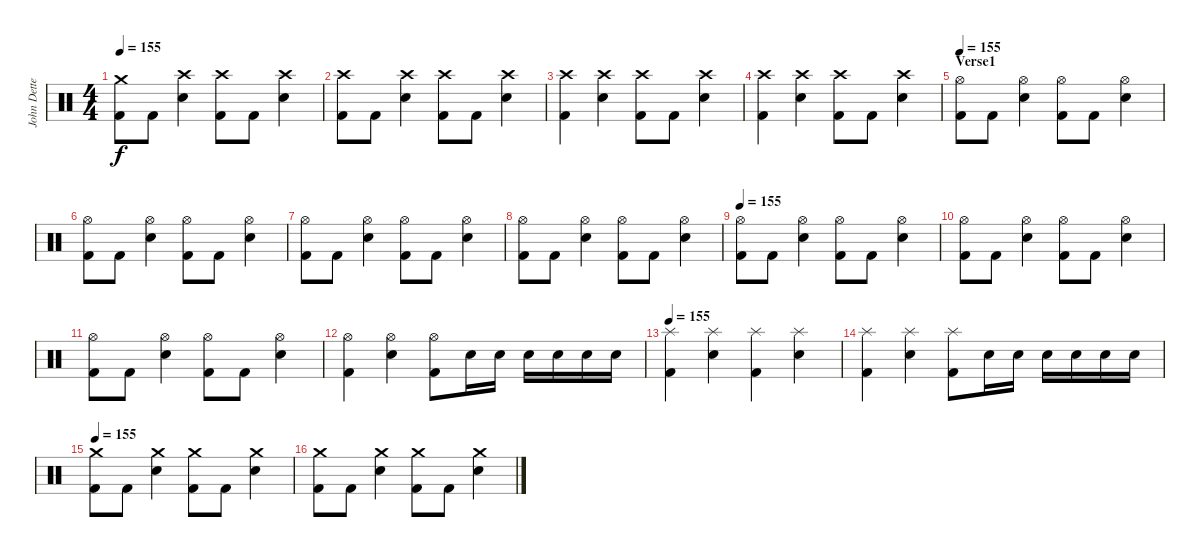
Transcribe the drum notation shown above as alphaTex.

\track ("John Dette" "John Dette") {instrument percussion}
\staff {score}
\articulation defaults
\ts (4 4)
\tempo 155
\clef neutral
\ks c
("Crash medium (hit)" "Kick (hit) 2").8{dy f} "Kick (hit) 2".8 ("Crash high (hit)" "Snare (hit) 2").4 ("Crash high (hit)" "Kick (hit) 2").8 "Kick (hit) 2".8 ("Crash high (hit)" "Snare (hit) 2").4 |
("Crash high (hit)" "Kick (hit) 2").8 "Kick (hit) 2".8 ("Crash high (hit)" "Snare (hit) 2").4 ("Crash high (hit)" "Kick (hit) 2").8 "Kick (hit) 2".8 ("Crash high (hit)" "Snare (hit) 2").4 |
("Crash high (hit)" "Kick (hit) 2").4 ("Crash high (hit)" "Snare (hit) 2").4 ("Crash high (hit)" "Kick (hit) 2").8 "Kick (hit) 2".8 ("Crash high (hit)" "Snare (hit) 2").4 |
("Crash high (hit)" "Kick (hit) 2").4 ("Crash high (hit)" "Snare (hit) 2").4 ("Crash high (hit)" "Kick (hit) 2").8 "Kick (hit) 2".8 ("Crash high (hit)" "Snare (hit) 2").4 |
\section ("" "Verse1")
\tempo 155
("Hi-Hat (open)" "Kick (hit) 2").8 "Kick (hit) 2".8 ("Hi-Hat (open)" "Snare (hit) 2").4 ("Hi-Hat (open)" "Kick (hit) 2").8 "Kick (hit) 2".8 ("Hi-Hat (open)" "Snare (hit) 2").4 |
("Hi-Hat (open)" "Kick (hit) 2").8 "Kick (hit) 2".8 ("Hi-Hat (open)" "Snare (hit) 2").4 ("Hi-Hat (open)" "Kick (hit) 2").8 "Kick (hit) 2".8 ("Hi-Hat (open)" "Snare (hit) 2").4 |
("Hi-Hat (open)" "Kick (hit) 2").8 "Kick (hit) 2".8 ("Hi-Hat (open)" "Snare (hit) 2").4 ("Hi-Hat (open)" "Kick (hit) 2").8 "Kick (hit) 2".8 ("Hi-Hat (open)" "Snare (hit) 2").4 |
("Hi-Hat (open)" "Kick (hit) 2").8 "Kick (hit) 2".8 ("Hi-Hat (open)" "Snare (hit) 2").4 ("Hi-Hat (open)" "Kick (hit) 2").8 "Kick (hit) 2".8 ("Hi-Hat (open)" "Snare (hit) 2").4 |
\tempo 155
("Hi-Hat (open)" "Kick (hit) 2").8 "Kick (hit) 2".8 ("Hi-Hat (open)" "Snare (hit) 2").4 ("Hi-Hat (open)" "Kick (hit) 2").8 "Kick (hit) 2".8 ("Hi-Hat (open)" "Snare (hit) 2").4 |
("Hi-Hat (open)" "Kick (hit) 2").8 "Kick (hit) 2".8 ("Hi-Hat (open)" "Snare (hit) 2").4 ("Hi-Hat (open)" "Kick (hit) 2").8 "Kick (hit) 2".8 ("Hi-Hat (open)" "Snare (hit) 2").4 |
("Hi-Hat (open)" "Kick (hit) 2").8 "Kick (hit) 2".8 ("Hi-Hat (open)" "Snare (hit) 2").4 ("Hi-Hat (open)" "Kick (hit) 2").8 "Kick (hit) 2".8 ("Hi-Hat (open)" "Snare (hit) 2").4 |
("Hi-Hat (open)" "Kick (hit) 2").4 ("Hi-Hat (open)" "Snare (hit) 2").4 ("Hi-Hat (open)" "Kick (hit) 2").8 "Snare (hit) 2".16 "Snare (hit) 2".16 "Snare (hit) 2".16 "Snare (hit) 2".16 "Snare (hit) 2".16 "Snare (hit) 2".16 |
\tempo 155
("Splash (hit)" "Kick (hit) 2").4 ("Splash (hit)" "Snare (hit) 2").4 ("Splash (hit)" "Kick (hit) 2").4 ("Splash (hit)" "Snare (hit) 2").4 |
("Splash (hit)" "Kick (hit) 2").4 ("Splash (hit)" "Snare (hit) 2").4 ("Splash (hit)" "Kick (hit) 2").8 "Snare (hit) 2".16 "Snare (hit) 2".16 "Snare (hit) 2".16 "Snare (hit) 2".16 "Snare (hit) 2".16 "Snare (hit) 2".16 |
\tempo 155
("Crash medium (hit)" "Kick (hit) 2").8 "Kick (hit) 2".8 ("Crash medium (hit)" "Snare (hit) 2").4 ("Crash medium (hit)" "Kick (hit) 2").8 "Kick (hit) 2".8 ("Crash medium (hit)" "Snare (hit) 2").4 |
("Crash medium (hit)" "Kick (hit) 2").8 "Kick (hit) 2".8 ("Crash medium (hit)" "Snare (hit) 2").4 ("Crash medium (hit)" "Kick (hit) 2").8 "Kick (hit) 2".8 ("Crash medium (hit)" "Snare (hit) 2").4
